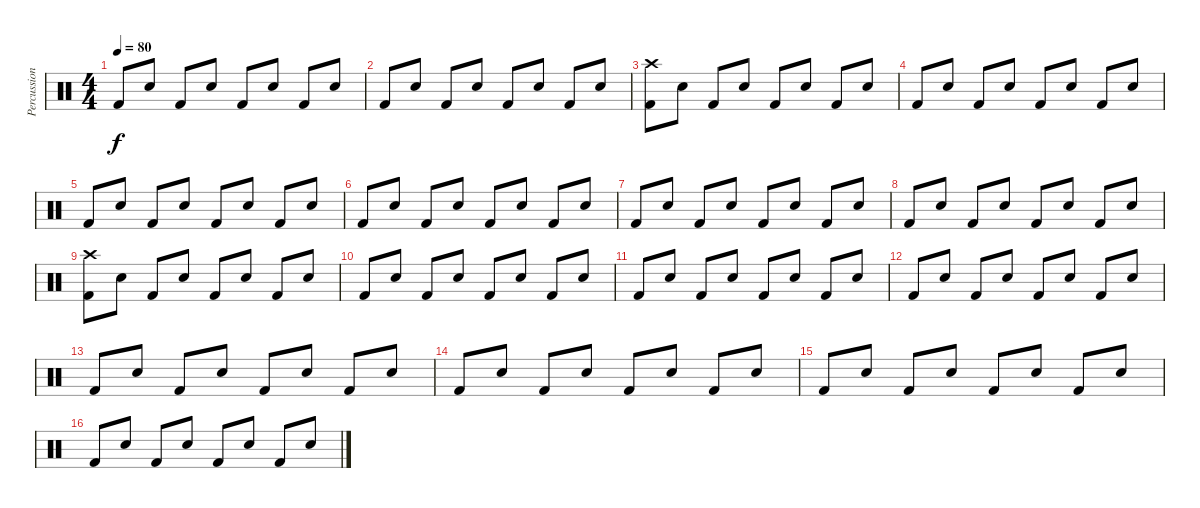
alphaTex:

\track ("Percussion" "Percussion") {instrument percussion}
\staff {score}
\articulation defaults
\ts (4 4)
\tempo 80
\clef neutral
\ks c "Kick (hit) 2".8{dy f} "Electric Snare (hit)".8 "Kick (hit) 2".8 "Electric Snare (hit)".8 "Kick (hit) 2".8 "Electric Snare (hit)".8 "Kick (hit) 2".8 "Electric Snare (hit)".8
|
"Kick (hit) 2".8 "Electric Snare (hit)".8 "Kick (hit) 2".8 "Electric Snare (hit)".8 "Kick (hit) 2".8 "Electric Snare (hit)".8 "Kick (hit) 2".8 "Electric Snare (hit)".8 |
("Kick (hit) 2" "Crash high (hit)").8 "Electric Snare (hit)".8 "Kick (hit) 2".8 "Electric Snare (hit)".8 "Kick (hit) 2".8 "Electric Snare (hit)".8 "Kick (hit) 2".8 "Electric Snare (hit)".8 |
"Kick (hit) 2".8 "Electric Snare (hit)".8 "Kick (hit) 2".8 "Electric Snare (hit)".8 "Kick (hit) 2".8 "Electric Snare (hit)".8 "Kick (hit) 2".8 "Electric Snare (hit)".8 |
"Kick (hit) 2".8 "Electric Snare (hit)".8 "Kick (hit) 2".8 "Electric Snare (hit)".8 "Kick (hit) 2".8 "Electric Snare (hit)".8 "Kick (hit) 2".8 "Electric Snare (hit)".8 |
"Kick (hit) 2".8 "Electric Snare (hit)".8 "Kick (hit) 2".8 "Electric Snare (hit)".8 "Kick (hit) 2".8 "Electric Snare (hit)".8 "Kick (hit) 2".8 "Electric Snare (hit)".8 |
"Kick (hit) 2".8 "Electric Snare (hit)".8 "Kick (hit) 2".8 "Electric Snare (hit)".8 "Kick (hit) 2".8 "Electric Snare (hit)".8 "Kick (hit) 2".8 "Electric Snare (hit)".8 |
"Kick (hit) 2".8 "Electric Snare (hit)".8 "Kick (hit) 2".8 "Electric Snare (hit)".8 "Kick (hit) 2".8 "Electric Snare (hit)".8 "Kick (hit) 2".8 "Electric Snare (hit)".8 |
("Kick (hit) 2" "Crash high (hit)").8 "Electric Snare (hit)".8 "Kick (hit) 2".8 "Electric Snare (hit)".8 "Kick (hit) 2".8 "Electric Snare (hit)".8 "Kick (hit) 2".8 "Electric Snare (hit)".8 |
"Kick (hit) 2".8 "Electric Snare (hit)".8 "Kick (hit) 2".8 "Electric Snare (hit)".8 "Kick (hit) 2".8 "Electric Snare (hit)".8 "Kick (hit) 2".8 "Electric Snare (hit)".8 |
"Kick (hit) 2".8 "Electric Snare (hit)".8 "Kick (hit) 2".8 "Electric Snare (hit)".8 "Kick (hit) 2".8 "Electric Snare (hit)".8 "Kick (hit) 2".8 "Electric Snare (hit)".8 |
"Kick (hit) 2".8 "Electric Snare (hit)".8 "Kick (hit) 2".8 "Electric Snare (hit)".8 "Kick (hit) 2".8 "Electric Snare (hit)".8 "Kick (hit) 2".8 "Electric Snare (hit)".8 |
"Kick (hit) 2".8{volume 4} "Electric Snare (hit)".8 "Kick (hit) 2".8 "Electric Snare (hit)".8 "Kick (hit) 2".8 "Electric Snare (hit)".8 "Kick (hit) 2".8 "Electric Snare (hit)".8 |
"Kick (hit) 2".8 "Electric Snare (hit)".8 "Kick (hit) 2".8 "Electric Snare (hit)".8 "Kick (hit) 2".8 "Electric Snare (hit)".8 "Kick (hit) 2".8 "Electric Snare (hit)".8 |
"Kick (hit) 2".8 "Electric Snare (hit)".8 "Kick (hit) 2".8 "Electric Snare (hit)".8 "Kick (hit) 2".8 "Electric Snare (hit)".8 "Kick (hit) 2".8 "Electric Snare (hit)".8 |
"Kick (hit) 2".8 "Electric Snare (hit)".8 "Kick (hit) 2".8 "Electric Snare (hit)".8 "Kick (hit) 2".8 "Electric Snare (hit)".8 "Kick (hit) 2".8 "Electric Snare (hit)".8
